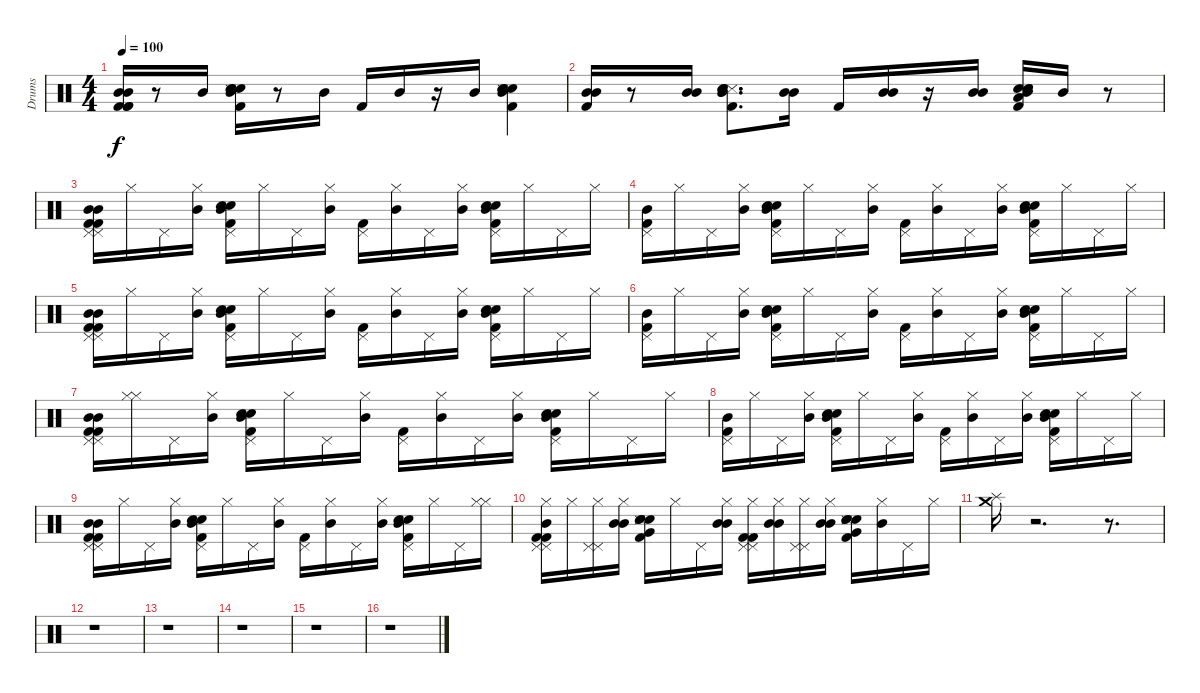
\track ("Drums" "Drums") {instrument percussion}
\staff {score}
\articulation defaults
\ts (4 4)
\tempo 100
\clef neutral
\ks c
("Mid Tom (hit)" "Mid Tom (hit)" "Kick (hit) 2" "Kick (hit) 2" "Kick (hit) 2").16{dy f} r.8 "Mid Tom (hit)".16 ("Mid Tom (hit)" "Kick (hit) 2" "Snare (hit) 2" "Hand Clap (hit)" "Electric Snare (hit)" "Snare (side stick) 3").16 r.8 "Mid Tom (hit)".16 "Kick (hit) 2".16 "Mid Tom (hit)".16 r.16 "Mid Tom (hit)".16 ("Mid Tom (hit)" "Kick (hit) 2" "Snare (hit) 2" "Hand Clap (hit)" "Electric Snare (hit)" "Snare (side stick) 3").4 |
("Mid Tom (hit)" "Mid Tom (hit)" "Kick (hit) 2").16 r.8 ("Mid Tom (hit)" "Mid Tom (hit)").16 ("Mid Tom (hit)" "Mid Tom (hit)" "Kick (hit) 2" "Snare (side stick) 3" "Snare (hit) 2" "Hand Clap (hit)").8{d} ("Mid Tom (hit)" "Mid Tom (hit)").16 "Kick (hit) 2".16 ("Mid Tom (hit)" "Mid Tom (hit)").16 r.16 ("Mid Tom (hit)" "Mid Tom (hit)").16 ("Mid Tom (hit)" "Kick (hit) 2" "Low Floor Tom (hit)" "Electric Snare (hit)" "Hand Clap (hit)" "Snare (hit) 2").16 "Mid Tom (hit)".16 r.8 |
("Kick (hit) 2" "Mid Tom (hit)" "Pedal Hi-Hat (hit)" "Kick (hit) 2" "Mid Tom (hit)" "Pedal Hi-Hat (hit)").16 "Hi-Hat (closed)".16 "Pedal Hi-Hat (hit)".16 ("Hi-Hat (closed)" "Mid Tom (hit)").16 ("Pedal Hi-Hat (hit)" "Electric Snare (hit)" "Snare (hit) 2" "Kick (hit) 2" "Mid Tom (hit)").16 "Hi-Hat (closed)".16 "Pedal Hi-Hat (hit)".16 ("Hi-Hat (closed)" "Mid Tom (hit)").16 ("Pedal Hi-Hat (hit)" "Kick (hit) 2").16 ("Hi-Hat (closed)" "Mid Tom (hit)").16 "Pedal Hi-Hat (hit)".16 ("Hi-Hat (closed)" "Mid Tom (hit)").16 ("Pedal Hi-Hat (hit)" "Snare (hit) 2" "Electric Snare (hit)" "Kick (hit) 2" "Mid Tom (hit)").16 "Hi-Hat (closed)".16 "Pedal Hi-Hat (hit)".16 "Hi-Hat (closed)".16 |
("Pedal Hi-Hat (hit)" "Kick (hit) 2" "Mid Tom (hit)").16 "Hi-Hat (closed)".16 "Pedal Hi-Hat (hit)".16 ("Hi-Hat (closed)" "Mid Tom (hit)").16 ("Pedal Hi-Hat (hit)" "Snare (hit) 2" "Electric Snare (hit)" "Kick (hit) 2" "Mid Tom (hit)").16 "Hi-Hat (closed)".16 "Pedal Hi-Hat (hit)".16 ("Hi-Hat (closed)" "Mid Tom (hit)").16 ("Pedal Hi-Hat (hit)" "Kick (hit) 2").16 ("Hi-Hat (closed)" "Mid Tom (hit)").16 "Pedal Hi-Hat (hit)".16 ("Hi-Hat (closed)" "Mid Tom (hit)").16 ("Pedal Hi-Hat (hit)" "Snare (hit) 2" "Electric Snare (hit)" "Kick (hit) 2" "Mid Tom (hit)").16 "Hi-Hat (closed)".16 "Pedal Hi-Hat (hit)".16 "Hi-Hat (closed)".16 |
("Pedal Hi-Hat (hit)" "Kick (hit) 2" "Mid Tom (hit)" "Pedal Hi-Hat (hit)" "Kick (hit) 2" "Mid Tom (hit)").16 "Hi-Hat (closed)".16 "Pedal Hi-Hat (hit)".16 ("Hi-Hat (closed)" "Mid Tom (hit)").16 ("Pedal Hi-Hat (hit)" "Electric Snare (hit)" "Snare (hit) 2" "Kick (hit) 2" "Mid Tom (hit)").16 "Hi-Hat (closed)".16 "Pedal Hi-Hat (hit)".16 ("Hi-Hat (closed)" "Mid Tom (hit)").16 ("Pedal Hi-Hat (hit)" "Kick (hit) 2").16 ("Hi-Hat (closed)" "Mid Tom (hit)").16 "Pedal Hi-Hat (hit)".16 ("Hi-Hat (closed)" "Mid Tom (hit)").16 ("Pedal Hi-Hat (hit)" "Snare (hit) 2" "Electric Snare (hit)" "Kick (hit) 2" "Mid Tom (hit)").16 "Hi-Hat (closed)".16 "Pedal Hi-Hat (hit)".16 "Hi-Hat (closed)".16 |
("Pedal Hi-Hat (hit)" "Kick (hit) 2" "Mid Tom (hit)").16 "Hi-Hat (closed)".16 "Pedal Hi-Hat (hit)".16 ("Hi-Hat (closed)" "Mid Tom (hit)").16 ("Pedal Hi-Hat (hit)" "Snare (hit) 2" "Electric Snare (hit)" "Kick (hit) 2" "Mid Tom (hit)").16 "Hi-Hat (closed)".16 "Pedal Hi-Hat (hit)".16 ("Hi-Hat (closed)" "Mid Tom (hit)").16 ("Pedal Hi-Hat (hit)" "Kick (hit) 2").16 ("Hi-Hat (closed)" "Mid Tom (hit)").16 "Pedal Hi-Hat (hit)".16 ("Hi-Hat (closed)" "Mid Tom (hit)").16 ("Pedal Hi-Hat (hit)" "Snare (hit) 2" "Electric Snare (hit)" "Kick (hit) 2" "Mid Tom (hit)").16 "Hi-Hat (closed)".16 "Pedal Hi-Hat (hit)".16 "Hi-Hat (closed)".16 |
("Pedal Hi-Hat (hit)" "Kick (hit) 2" "Mid Tom (hit)" "Pedal Hi-Hat (hit)" "Kick (hit) 2" "Mid Tom (hit)").16 ("Hi-Hat (closed)" "Hi-Hat (closed)").16 "Pedal Hi-Hat (hit)".16 ("Hi-Hat (closed)" "Mid Tom (hit)").16 ("Pedal Hi-Hat (hit)" "Electric Snare (hit)" "Snare (hit) 2" "Kick (hit) 2" "Mid Tom (hit)").16 "Hi-Hat (closed)".16 "Pedal Hi-Hat (hit)".16 ("Hi-Hat (closed)" "Mid Tom (hit)").16 ("Pedal Hi-Hat (hit)" "Kick (hit) 2").16 ("Hi-Hat (closed)" "Mid Tom (hit)").16 "Pedal Hi-Hat (hit)".16 ("Hi-Hat (closed)" "Mid Tom (hit)").16 ("Pedal Hi-Hat (hit)" "Snare (hit) 2" "Electric Snare (hit)" "Kick (hit) 2" "Mid Tom (hit)").16 "Hi-Hat (closed)".16 "Pedal Hi-Hat (hit)".16 "Hi-Hat (closed)".16 |
("Pedal Hi-Hat (hit)" "Kick (hit) 2" "Mid Tom (hit)").16 "Hi-Hat (closed)".16 "Pedal Hi-Hat (hit)".16 ("Hi-Hat (closed)" "Mid Tom (hit)").16 ("Pedal Hi-Hat (hit)" "Snare (hit) 2" "Electric Snare (hit)" "Kick (hit) 2" "Mid Tom (hit)").16 "Hi-Hat (closed)".16 "Pedal Hi-Hat (hit)".16 ("Hi-Hat (closed)" "Mid Tom (hit)").16 ("Pedal Hi-Hat (hit)" "Kick (hit) 2").16 ("Hi-Hat (closed)" "Mid Tom (hit)").16 "Pedal Hi-Hat (hit)".16 ("Hi-Hat (closed)" "Mid Tom (hit)").16 ("Pedal Hi-Hat (hit)" "Snare (hit) 2" "Electric Snare (hit)" "Kick (hit) 2" "Mid Tom (hit)").16 "Hi-Hat (closed)".16 "Pedal Hi-Hat (hit)".16 "Hi-Hat (closed)".16 |
("Pedal Hi-Hat (hit)" "Kick (hit) 2" "Mid Tom (hit)" "Pedal Hi-Hat (hit)" "Kick (hit) 2" "Mid Tom (hit)").16 "Hi-Hat (closed)".16 "Pedal Hi-Hat (hit)".16 ("Hi-Hat (closed)" "Mid Tom (hit)").16 ("Pedal Hi-Hat (hit)" "Electric Snare (hit)" "Snare (hit) 2" "Kick (hit) 2" "Mid Tom (hit)").16 "Hi-Hat (closed)".16 "Pedal Hi-Hat (hit)".16 ("Hi-Hat (closed)" "Mid Tom (hit)").16 ("Pedal Hi-Hat (hit)" "Kick (hit) 2").16 ("Hi-Hat (closed)" "Mid Tom (hit)").16 "Pedal Hi-Hat (hit)".16 ("Hi-Hat (closed)" "Mid Tom (hit)").16 ("Pedal Hi-Hat (hit)" "Snare (hit) 2" "Electric Snare (hit)" "Kick (hit) 2" "Mid Tom (hit)").16 "Hi-Hat (closed)".16 "Pedal Hi-Hat (hit)".16 ("Hi-Hat (closed)" "Hi-Hat (closed)").16 |
("Pedal Hi-Hat (hit)" "Hi-Hat (closed)" "Kick (hit) 2" "Mid Tom (hit)" "Pedal Hi-Hat (hit)" "Kick (hit) 2").16 "Hi-Hat (closed)".16 ("Hi-Hat (closed)" "Pedal Hi-Hat (hit)" "Pedal Hi-Hat (hit)").16 ("Mid Tom (hit)" "Hi-Hat (closed)" "Mid Tom (hit)").16 ("Snare (hit) 2" "Kick (hit) 2" "Electric Snare (hit)" "Hand Clap (hit)" "Snare (side stick) 3" "Very Low Tom (hit)").16 "Hi-Hat (closed)".16 "Pedal Hi-Hat (hit)".16 ("Mid Tom (hit)" "Hi-Hat (closed)" "Mid Tom (hit)").16 ("Hi-Hat (closed)" "Pedal Hi-Hat (hit)" "Kick (hit) 2" "Pedal Hi-Hat (hit)" "Kick (hit) 2").16 ("Mid Tom (hit)" "Hi-Hat (closed)" "Mid Tom (hit)").16 ("Hi-Hat (closed)" "Pedal Hi-Hat (hit)" "Pedal Hi-Hat (hit)").16 ("Mid Tom (hit)" "Hi-Hat (closed)" "Mid Tom (hit)").16 ("Kick (hit) 2" "Snare (hit) 2" "Electric Snare (hit)" "Hand Clap (hit)" "Snare (side stick) 3" "Very Low Tom (hit)").16 ("Mid Tom (hit)" "Hi-Hat (closed)").16 "Pedal Hi-Hat (hit)".16 "Hi-Hat (closed)".16 |
("Splash (hit)" "Crash medium (hit)").16 r.2{d} r.8{d} |
r.1 |
r.1 |
r.1 |
r.1 |
r.1
